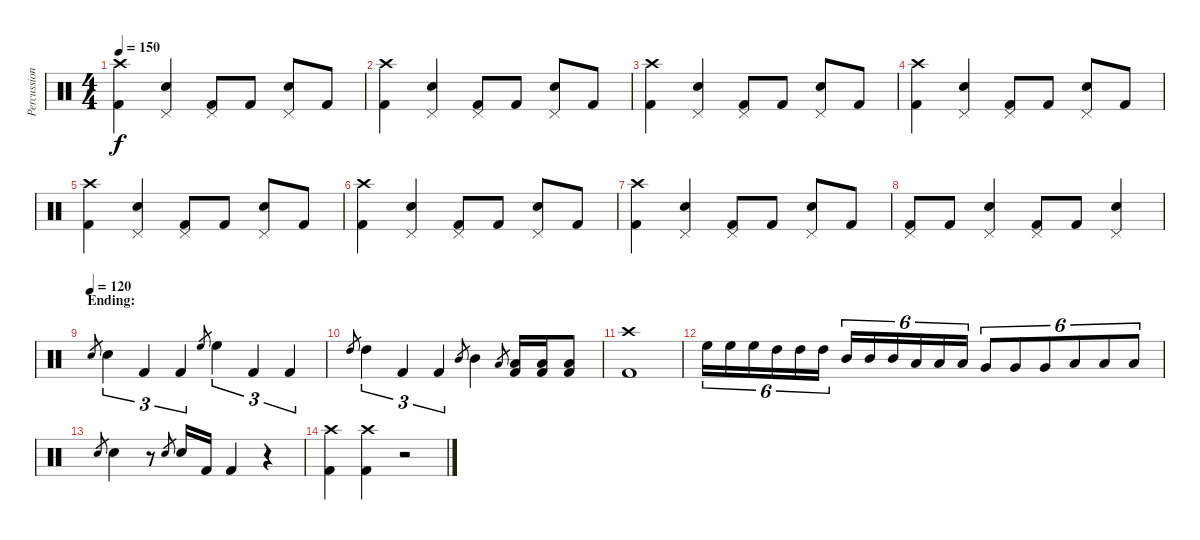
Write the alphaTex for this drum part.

\track ("Percussion" "Percussion") {instrument percussion}
\staff {score}
\articulation defaults
\ts (4 4)
\tempo 150
\clef neutral
\ks c
("Crash high (hit)" "Kick (hit) 2").4{dy f} ("Pedal Hi-Hat (hit)" "Snare (hit) 2").4 ("Pedal Hi-Hat (hit)" "Kick (hit) 2").8 "Kick (hit) 2".8 ("Pedal Hi-Hat (hit)" "Snare (hit) 2").8 "Kick (hit) 2".8 |
("Crash high (hit)" "Kick (hit) 2").4 ("Pedal Hi-Hat (hit)" "Snare (hit) 2").4 ("Pedal Hi-Hat (hit)" "Kick (hit) 2").8 "Kick (hit) 2".8 ("Pedal Hi-Hat (hit)" "Snare (hit) 2").8 "Kick (hit) 2".8 |
("Crash high (hit)" "Kick (hit) 2").4 ("Pedal Hi-Hat (hit)" "Snare (hit) 2").4 ("Pedal Hi-Hat (hit)" "Kick (hit) 2").8 "Kick (hit) 2".8 ("Pedal Hi-Hat (hit)" "Snare (hit) 2").8 "Kick (hit) 2".8 |
("Crash high (hit)" "Kick (hit) 2").4 ("Pedal Hi-Hat (hit)" "Snare (hit) 2").4 ("Pedal Hi-Hat (hit)" "Kick (hit) 2").8 "Kick (hit) 2".8 ("Pedal Hi-Hat (hit)" "Snare (hit) 2").8 "Kick (hit) 2".8 |
("Crash high (hit)" "Kick (hit) 2").4 ("Pedal Hi-Hat (hit)" "Snare (hit) 2").4 ("Pedal Hi-Hat (hit)" "Kick (hit) 2").8 "Kick (hit) 2".8 ("Pedal Hi-Hat (hit)" "Snare (hit) 2").8 "Kick (hit) 2".8 |
("Crash high (hit)" "Kick (hit) 2").4 ("Pedal Hi-Hat (hit)" "Snare (hit) 2").4 ("Pedal Hi-Hat (hit)" "Kick (hit) 2").8 "Kick (hit) 2".8 ("Pedal Hi-Hat (hit)" "Snare (hit) 2").8 "Kick (hit) 2".8 |
("Crash high (hit)" "Kick (hit) 2").4 ("Pedal Hi-Hat (hit)" "Snare (hit) 2").4 ("Pedal Hi-Hat (hit)" "Kick (hit) 2").8 "Kick (hit) 2".8 ("Pedal Hi-Hat (hit)" "Snare (hit) 2").8 "Kick (hit) 2".8 |
("Pedal Hi-Hat (hit)" "Kick (hit) 2").8 "Kick (hit) 2".8 ("Pedal Hi-Hat (hit)" "Snare (hit) 2").4 ("Pedal Hi-Hat (hit)" "Kick (hit) 2").8 "Kick (hit) 2".8 ("Pedal Hi-Hat (hit)" "Snare (hit) 2").4 |
\section ("" "Ending:")
\tempo (120)
"Snare (hit) 2".8{gr} "Snare (hit) 2".4{tu (3 2)} "Kick (hit) 2".4{tu (3 2)} "Kick (hit) 2".4{tu (3 2)} "High Floor Tom (hit)".8{gr} "High Floor Tom (hit)".4{tu (3 2)} "Kick (hit) 2".4{tu (3 2)} "Kick (hit) 2".4{tu (3 2)} |
"High Tom (hit)".8{gr} "High Tom (hit)".4{tu (3 2)} "Kick (hit) 2".4{tu (3 2)} "Kick (hit) 2".4{tu (3 2)} "Mid Tom (hit)".8{gr} "Mid Tom (hit)".4 "Low Floor Tom (hit)".8{gr} ("Low Floor Tom (hit)" "Kick (hit) 2").16 ("Low Floor Tom (hit)" "Kick (hit) 2").16 ("Low Floor Tom (hit)" "Kick (hit) 2").8 |
("Crash high (hit)" "Kick (hit) 2").1 |
"High Floor Tom (hit)".16{tu (6 4)} "High Floor Tom (hit)".16{tu (6 4)} "High Floor Tom (hit)".16{tu (6 4)} "High Tom (hit)".16{tu (6 4)} "High Tom (hit)".16{tu (6 4)} "High Tom (hit)".16{tu (6 4)} "Mid Tom (hit)".16{tu (6 4)} "Mid Tom (hit)".16{tu (6 4)} "Mid Tom (hit)".16{tu (6 4)} "Low Tom (hit)".16{tu (6 4)} "Low Tom (hit)".16{tu (6 4)} "Low Tom (hit)".16{tu (6 4)} "Very Low Tom (hit)".8{tu (6 4)} "Very Low Tom (hit)".8{tu (6 4)} "Very Low Tom (hit)".8{tu (6 4)} "Low Floor Tom (hit)".8{tu (6 4)} "Low Floor Tom (hit)".8{tu (6 4)} "Low Floor Tom (hit)".8{tu (6 4)} |
"Snare (hit) 2".8{gr} "Snare (hit) 2".4 r.8 "Snare (hit) 2".8{gr} "Snare (hit) 2".16 "Kick (hit) 2".16 "Kick (hit) 2".4 r.4 |
("Crash high (hit)" "Kick (hit) 2").4 ("Crash high (hit)" "Kick (hit) 2").4 r.2
